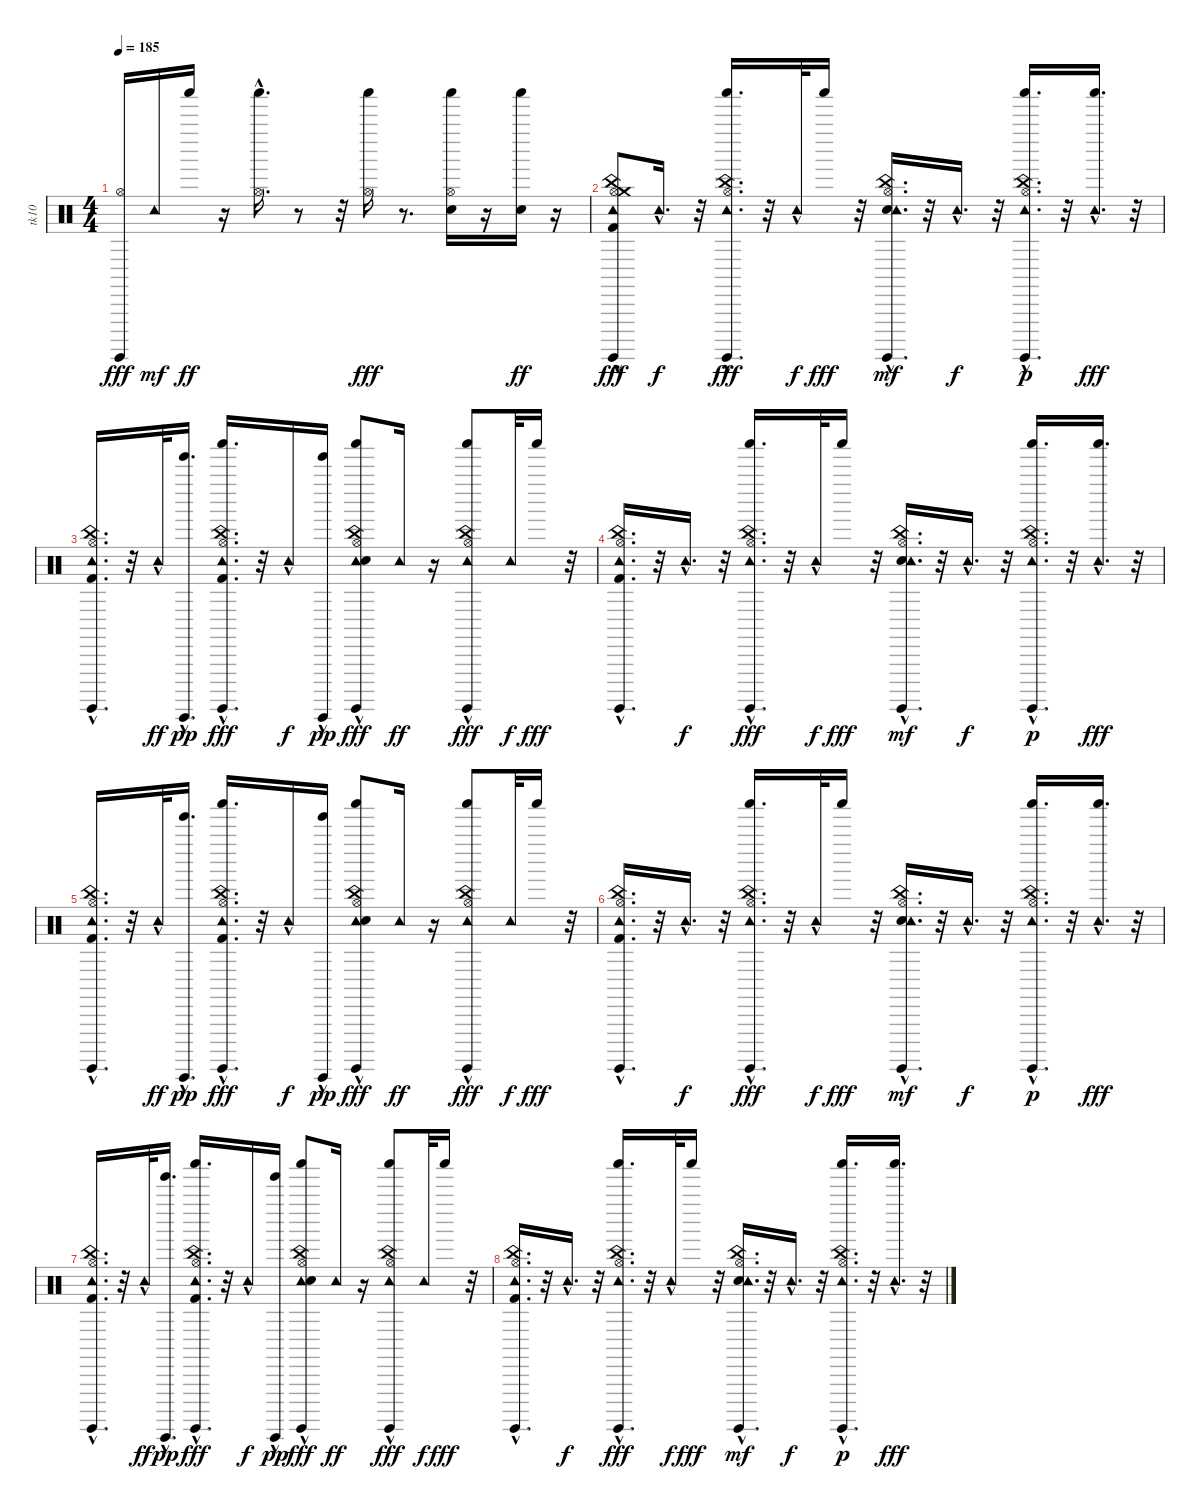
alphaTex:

\track ("tk10" "tk10") {instrument percussion}
\staff {score}
\articulation defaults
\ts (4 4)
\tempo 185
\clef neutral
\ks c
("Surdo (hit)" "Hi-Hat (open)").16{dy fff} "Tambourine (hit)".16{dy mf} "Shaker (hit)".16{dy ff} r.16 ("Hi-Hat (open)" "Shaker (hit)"{hac}).16{d} r.8 r.32 ("Hi-Hat (open)" "Shaker (hit)").16{dy fff} r.8{d} ("Electric Snare (hit)" "Hi-Hat (open)" "Shaker (hit)").16 r.16 ("Electric Snare (hit)" "Shaker (hit)").16{dy ff} r.16 |
("Surdo (hit)" "Kick (hit) 2"{hac} "Hi-Hat (open)" "Crash medium (hit)"{hac} "China (hit)" "Tambourine (hit)"{hac}).8{dy fff} "Tambourine (hit)"{hac}.16{d dy f} r.32 ("Tambourine (hit)"{hac} "Shaker (hit)" "Hi-Hat (open)" "China (hit)" "Surdo (hit)").16{d dy fff} r.32 "Tambourine (hit)"{hac}.32{dy f} "Shaker (hit)".16{dy fff} r.32 ("Electric Snare (hit)"{hac} "Hi-Hat (open)" "China (hit)" "Tambourine (hit)"{hac} "Surdo (hit)").16{d dy mf} r.32 "Tambourine (hit)"{hac}.16{d dy f} r.32 ("Shaker (hit)" "Surdo (hit)" "Tambourine (hit)"{hac} "Hi-Hat (open)" "China (hit)").16{d dy p} r.32 ("Tambourine (hit)"{hac} "Shaker (hit)").16{d dy fff} r.32 |
("Kick (hit) 2"{hac} "Hi-Hat (open)" "China (hit)" "Surdo (hit)" "Tambourine (hit)"{hac}).16{d} r.32 "Tambourine (hit)"{hac}.32{dy ff} ("Guiro (hit)" "Tinkle Bell (hit)"{hac}).16{d dy pp} ("Tambourine (hit)"{hac} "Shaker (hit)" "Kick (hit) 2"{hac} "Hi-Hat (open)" "China (hit)" "Surdo (hit)").16{d dy fff} r.32 "Tambourine (hit)"{hac}.16{dy f} ("Guiro (hit)" "Tinkle Bell (hit)"{hac}).16{dy pp} ("Tambourine (hit)"{hac} "Electric Snare (hit)" "Hi-Hat (open)" "China (hit)" "Shaker (hit)"{hac} "Surdo (hit)").8{dy fff} "Tambourine (hit)".16{dy ff} r.16 ("Tambourine (hit)" "Shaker (hit)" "Hi-Hat (open)" "China (hit)" "Surdo (hit)"{hac}).8{dy fff} "Tambourine (hit)".32{dy f} "Shaker (hit)".16{dy fff} r.32 |
("Kick (hit) 2"{hac} "Hi-Hat (open)" "Surdo (hit)" "China (hit)" "Tambourine (hit)"{hac}).16{d} r.32 "Tambourine (hit)"{hac}.16{d dy f} r.32 ("Tambourine (hit)"{hac} "Shaker (hit)" "Hi-Hat (open)" "China (hit)" "Surdo (hit)").16{d dy fff} r.32 "Tambourine (hit)"{hac}.32{dy f} "Shaker (hit)".16{dy fff} r.32 ("Electric Snare (hit)"{hac} "Hi-Hat (open)" "China (hit)" "Tambourine (hit)"{hac} "Surdo (hit)").16{d dy mf} r.32 "Tambourine (hit)"{hac}.16{d dy f} r.32 ("Shaker (hit)" "Surdo (hit)" "Tambourine (hit)"{hac} "Hi-Hat (open)" "China (hit)").16{d dy p} r.32 ("Tambourine (hit)"{hac} "Shaker (hit)").16{d dy fff} r.32 |
("Kick (hit) 2"{hac} "Hi-Hat (open)" "China (hit)" "Surdo (hit)" "Tambourine (hit)"{hac}).16{d} r.32 "Tambourine (hit)"{hac}.32{dy ff} ("Guiro (hit)" "Tinkle Bell (hit)"{hac}).16{d dy pp} ("Tambourine (hit)"{hac} "Shaker (hit)" "Kick (hit) 2"{hac} "Hi-Hat (open)" "China (hit)" "Surdo (hit)").16{d dy fff} r.32 "Tambourine (hit)"{hac}.16{dy f} ("Guiro (hit)" "Tinkle Bell (hit)"{hac}).16{dy pp} ("Tambourine (hit)"{hac} "Electric Snare (hit)" "Hi-Hat (open)" "China (hit)" "Shaker (hit)"{hac} "Surdo (hit)").8{dy fff} "Tambourine (hit)".16{dy ff} r.16 ("Tambourine (hit)" "Shaker (hit)" "Hi-Hat (open)" "China (hit)" "Surdo (hit)"{hac}).8{dy fff} "Tambourine (hit)".32{dy f} "Shaker (hit)".16{dy fff} r.32 |
("Kick (hit) 2"{hac} "Hi-Hat (open)" "Surdo (hit)" "China (hit)" "Tambourine (hit)"{hac}).16{d} r.32 "Tambourine (hit)"{hac}.16{d dy f} r.32 ("Tambourine (hit)"{hac} "Shaker (hit)" "Hi-Hat (open)" "China (hit)" "Surdo (hit)").16{d dy fff} r.32 "Tambourine (hit)"{hac}.32{dy f} "Shaker (hit)".16{dy fff} r.32 ("Electric Snare (hit)"{hac} "Hi-Hat (open)" "China (hit)" "Tambourine (hit)"{hac} "Surdo (hit)").16{d dy mf} r.32 "Tambourine (hit)"{hac}.16{d dy f} r.32 ("Shaker (hit)" "Surdo (hit)" "Tambourine (hit)"{hac} "Hi-Hat (open)" "China (hit)").16{d dy p} r.32 ("Tambourine (hit)"{hac} "Shaker (hit)").16{d dy fff} r.32 |
("Kick (hit) 2"{hac} "Hi-Hat (open)" "China (hit)" "Surdo (hit)" "Tambourine (hit)"{hac}).16{d} r.32 "Tambourine (hit)"{hac}.32{dy ff} ("Guiro (hit)" "Tinkle Bell (hit)"{hac}).16{d dy pp} ("Tambourine (hit)"{hac} "Shaker (hit)" "Kick (hit) 2"{hac} "Hi-Hat (open)" "China (hit)" "Surdo (hit)").16{d dy fff} r.32 "Tambourine (hit)"{hac}.16{dy f} ("Guiro (hit)" "Tinkle Bell (hit)"{hac}).16{dy pp} ("Tambourine (hit)"{hac} "Electric Snare (hit)" "Hi-Hat (open)" "China (hit)" "Shaker (hit)"{hac} "Surdo (hit)").8{dy fff} "Tambourine (hit)".16{dy ff} r.16 ("Tambourine (hit)" "Shaker (hit)" "Hi-Hat (open)" "China (hit)" "Surdo (hit)"{hac}).8{dy fff} "Tambourine (hit)".32{dy f} "Shaker (hit)".16{dy fff} r.32 |
("Kick (hit) 2"{hac} "Hi-Hat (open)" "Surdo (hit)" "China (hit)" "Tambourine (hit)"{hac}).16{d} r.32 "Tambourine (hit)"{hac}.16{d dy f} r.32 ("Tambourine (hit)"{hac} "Shaker (hit)" "Hi-Hat (open)" "China (hit)" "Surdo (hit)").16{d dy fff} r.32 "Tambourine (hit)"{hac}.32{dy f} "Shaker (hit)".16{dy fff} r.32 ("Electric Snare (hit)"{hac} "Hi-Hat (open)" "China (hit)" "Tambourine (hit)"{hac} "Surdo (hit)").16{d dy mf} r.32 "Tambourine (hit)"{hac}.16{d dy f} r.32 ("Shaker (hit)" "Surdo (hit)" "Tambourine (hit)"{hac} "Hi-Hat (open)" "China (hit)").16{d dy p} r.32 ("Tambourine (hit)"{hac} "Shaker (hit)").16{d dy fff} r.32
